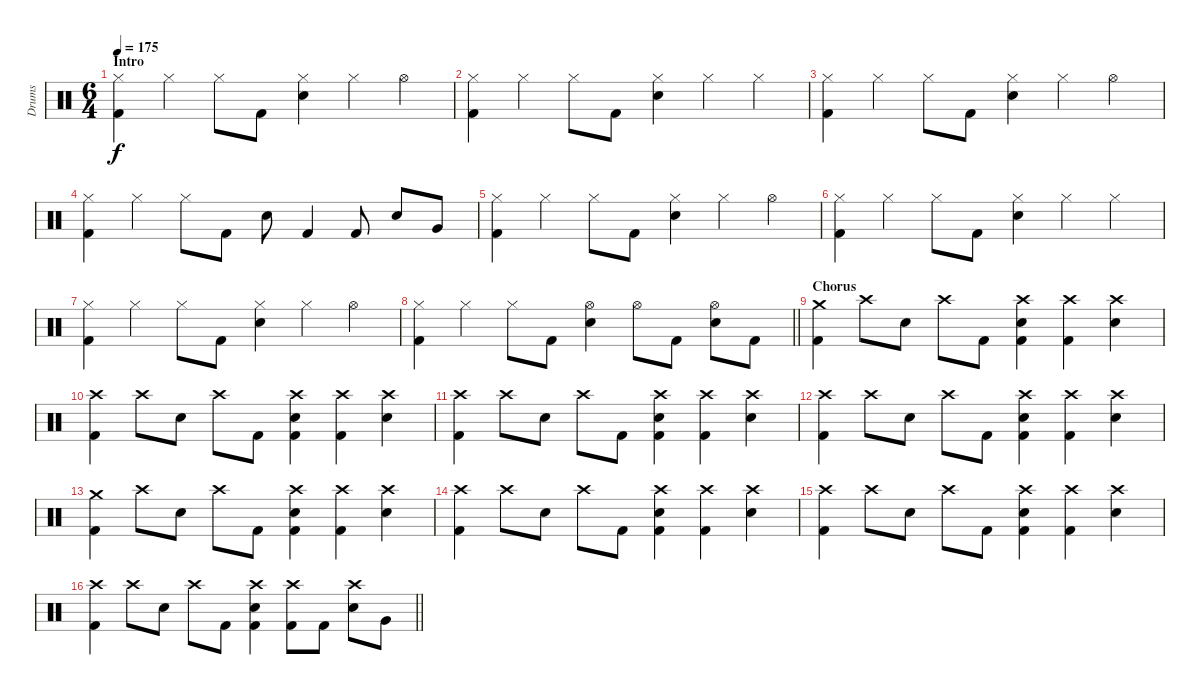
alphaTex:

\track ("Drums" "Drums") {instrument percussion}
\staff {score}
\articulation defaults
\ts (6 4)
\section ("" "Intro")
\tempo 175
\clef neutral
\ks c
("Hi-Hat (closed)" "Kick (hit) 2").4{dy f} "Hi-Hat (closed)".4 "Hi-Hat (closed)".8 "Kick (hit) 2".8 ("Hi-Hat (closed)" "Electric Snare (hit)").4 "Hi-Hat (closed)".4 "Hi-Hat (open)".4 |
("Hi-Hat (closed)" "Kick (hit) 2").4 "Hi-Hat (closed)".4 "Hi-Hat (closed)".8 "Kick (hit) 2".8 ("Hi-Hat (closed)" "Electric Snare (hit)").4 "Hi-Hat (closed)".4 "Hi-Hat (closed)".4 |
("Hi-Hat (closed)" "Kick (hit) 2").4 "Hi-Hat (closed)".4 "Hi-Hat (closed)".8 "Kick (hit) 2".8 ("Hi-Hat (closed)" "Electric Snare (hit)").4 "Hi-Hat (closed)".4 "Hi-Hat (open)".4 |
("Hi-Hat (closed)" "Kick (hit) 2").4 "Hi-Hat (closed)".4 "Hi-Hat (closed)".8 "Kick (hit) 2".8 "Electric Snare (hit)".8 "Kick (hit) 2".4 "Kick (hit) 2".8 "Electric Snare (hit)".8 "Very Low Tom (hit)".8 |
("Hi-Hat (closed)" "Kick (hit) 2").4 "Hi-Hat (closed)".4 "Hi-Hat (closed)".8 "Kick (hit) 2".8 ("Hi-Hat (closed)" "Electric Snare (hit)").4 "Hi-Hat (closed)".4 "Hi-Hat (open)".4 |
("Hi-Hat (closed)" "Kick (hit) 2").4 "Hi-Hat (closed)".4 "Hi-Hat (closed)".8 "Kick (hit) 2".8 ("Hi-Hat (closed)" "Electric Snare (hit)").4 "Hi-Hat (closed)".4 "Hi-Hat (closed)".4 |
("Hi-Hat (closed)" "Kick (hit) 2").4 "Hi-Hat (closed)".4 "Hi-Hat (closed)".8 "Kick (hit) 2".8 ("Hi-Hat (closed)" "Electric Snare (hit)").4 "Hi-Hat (closed)".4 "Hi-Hat (open)".4 |
\barLineRight lightlight
("Hi-Hat (closed)" "Kick (hit) 2").4 "Hi-Hat (closed)".4 "Hi-Hat (closed)".8 "Kick (hit) 2".8 ("Hi-Hat (open)" "Electric Snare (hit)").4 "Hi-Hat (open)".8 "Kick (hit) 2".8 ("Hi-Hat (open)" "Electric Snare (hit)").8 "Kick (hit) 2".8 |
\section ("" "Chorus")
("Crash medium (hit)" "Kick (hit) 2").4 "Crash high (hit)".8 "Electric Snare (hit)".8 "Crash high (hit)".8 "Kick (hit) 2".8 ("Crash high (hit)" "Electric Snare (hit)" "Kick (hit) 2").4 ("Crash high (hit)" "Kick (hit) 2").4 ("Crash high (hit)" "Electric Snare (hit)").4 |
("Crash high (hit)" "Kick (hit) 2").4 "Crash high (hit)".8 "Electric Snare (hit)".8 "Crash high (hit)".8 "Kick (hit) 2".8 ("Crash high (hit)" "Electric Snare (hit)" "Kick (hit) 2").4 ("Crash high (hit)" "Kick (hit) 2").4 ("Crash high (hit)" "Electric Snare (hit)").4 |
("Crash high (hit)" "Kick (hit) 2").4 "Crash high (hit)".8 "Electric Snare (hit)".8 "Crash high (hit)".8 "Kick (hit) 2".8 ("Crash high (hit)" "Electric Snare (hit)" "Kick (hit) 2").4 ("Crash high (hit)" "Kick (hit) 2").4 ("Crash high (hit)" "Electric Snare (hit)").4 |
("Crash high (hit)" "Kick (hit) 2").4 "Crash high (hit)".8 "Electric Snare (hit)".8 "Crash high (hit)".8 "Kick (hit) 2".8 ("Crash high (hit)" "Electric Snare (hit)" "Kick (hit) 2").4 ("Crash high (hit)" "Kick (hit) 2").4 ("Crash high (hit)" "Electric Snare (hit)").4 |
("Crash medium (hit)" "Kick (hit) 2").4 "Crash high (hit)".8 "Electric Snare (hit)".8 "Crash high (hit)".8 "Kick (hit) 2".8 ("Crash high (hit)" "Electric Snare (hit)" "Kick (hit) 2").4 ("Crash high (hit)" "Kick (hit) 2").4 ("Crash high (hit)" "Electric Snare (hit)").4 |
("Crash high (hit)" "Kick (hit) 2").4 "Crash high (hit)".8 "Electric Snare (hit)".8 "Crash high (hit)".8 "Kick (hit) 2".8 ("Crash high (hit)" "Electric Snare (hit)" "Kick (hit) 2").4 ("Crash high (hit)" "Kick (hit) 2").4 ("Crash high (hit)" "Electric Snare (hit)").4 |
("Crash high (hit)" "Kick (hit) 2").4 "Crash high (hit)".8 "Electric Snare (hit)".8 "Crash high (hit)".8 "Kick (hit) 2".8 ("Crash high (hit)" "Electric Snare (hit)" "Kick (hit) 2").4 ("Crash high (hit)" "Kick (hit) 2").4 ("Crash high (hit)" "Electric Snare (hit)").4 |
\barLineRight lightlight
("Crash high (hit)" "Kick (hit) 2").4 "Crash high (hit)".8 "Electric Snare (hit)".8 "Crash high (hit)".8 "Kick (hit) 2".8 ("Crash high (hit)" "Electric Snare (hit)" "Kick (hit) 2").4 ("Crash high (hit)" "Kick (hit) 2").8 "Kick (hit) 2".8 ("Crash high (hit)" "Electric Snare (hit)").8 "Very Low Tom (hit)".8
